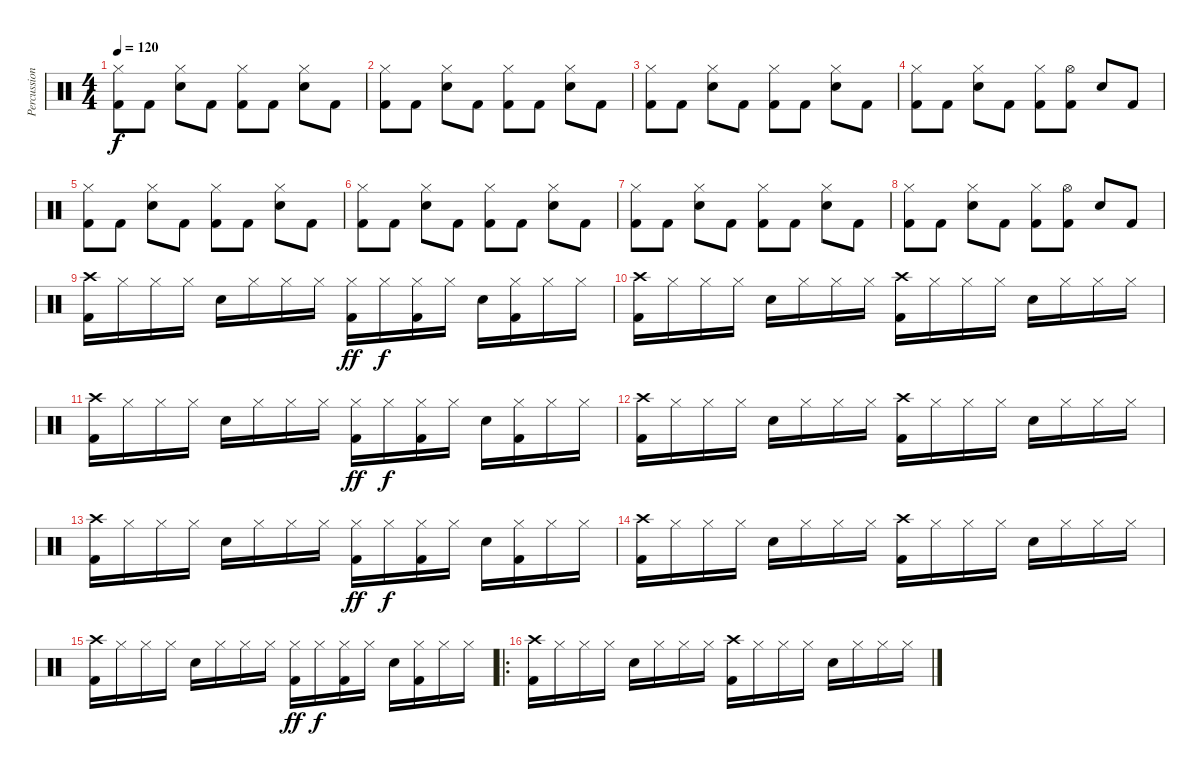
\track ("Percussions" "Percussion") {instrument percussion}
\staff {score}
\articulation defaults
\ts (4 4)
\tempo 120
\clef neutral
\ks c
("Hi-Hat (closed)" "Kick (hit) 2").8{dy f} "Kick (hit) 2".8 ("Hi-Hat (closed)" "Electric Snare (hit)").8 "Kick (hit) 2".8 ("Hi-Hat (closed)" "Kick (hit) 2").8 "Kick (hit) 2".8 ("Hi-Hat (closed)" "Electric Snare (hit)").8 "Kick (hit) 2".8 |
("Hi-Hat (closed)" "Kick (hit) 2").8 "Kick (hit) 2".8 ("Hi-Hat (closed)" "Electric Snare (hit)").8 "Kick (hit) 2".8 ("Hi-Hat (closed)" "Kick (hit) 2").8 "Kick (hit) 2".8 ("Hi-Hat (closed)" "Electric Snare (hit)").8 "Kick (hit) 2".8 |
("Hi-Hat (closed)" "Kick (hit) 2").8 "Kick (hit) 2".8 ("Hi-Hat (closed)" "Electric Snare (hit)").8 "Kick (hit) 2".8 ("Hi-Hat (closed)" "Kick (hit) 2").8 "Kick (hit) 2".8 ("Hi-Hat (closed)" "Electric Snare (hit)").8 "Kick (hit) 2".8 |
("Hi-Hat (closed)" "Kick (hit) 2").8 "Kick (hit) 2".8 ("Hi-Hat (closed)" "Electric Snare (hit)").8 "Kick (hit) 2".8 ("Hi-Hat (closed)" "Kick (hit) 2").8 ("Hi-Hat (open)" "Kick (hit) 2").8 "Electric Snare (hit)".8 "Kick (hit) 2".8 |
("Hi-Hat (closed)" "Kick (hit) 2").8 "Kick (hit) 2".8 ("Hi-Hat (closed)" "Electric Snare (hit)").8 "Kick (hit) 2".8 ("Hi-Hat (closed)" "Kick (hit) 2").8 "Kick (hit) 2".8 ("Hi-Hat (closed)" "Electric Snare (hit)").8 "Kick (hit) 2".8 |
("Hi-Hat (closed)" "Kick (hit) 2").8 "Kick (hit) 2".8 ("Hi-Hat (closed)" "Electric Snare (hit)").8 "Kick (hit) 2".8 ("Hi-Hat (closed)" "Kick (hit) 2").8 "Kick (hit) 2".8 ("Hi-Hat (closed)" "Electric Snare (hit)").8 "Kick (hit) 2".8 |
("Hi-Hat (closed)" "Kick (hit) 2").8 "Kick (hit) 2".8 ("Hi-Hat (closed)" "Electric Snare (hit)").8 "Kick (hit) 2".8 ("Hi-Hat (closed)" "Kick (hit) 2").8 "Kick (hit) 2".8 ("Hi-Hat (closed)" "Electric Snare (hit)").8 "Kick (hit) 2".8 |
("Hi-Hat (closed)" "Kick (hit) 2").8 "Kick (hit) 2".8 ("Hi-Hat (closed)" "Electric Snare (hit)").8 "Kick (hit) 2".8 ("Hi-Hat (closed)" "Kick (hit) 2").8 ("Hi-Hat (open)" "Kick (hit) 2").8 "Electric Snare (hit)".8 "Kick (hit) 2".8 |
("Crash high (hit)" "Kick (hit) 2").16 "Hi-Hat (closed)".16 "Hi-Hat (closed)".16 "Hi-Hat (closed)".16 "Snare (hit) 2".16 "Hi-Hat (closed)".16 "Hi-Hat (closed)".16 "Hi-Hat (closed)".16 ("Hi-Hat (closed)" "Kick (hit) 2").16{dy ff} "Hi-Hat (closed)".16{dy f} ("Hi-Hat (closed)" "Kick (hit) 2").16 "Hi-Hat (closed)".16 "Snare (hit) 2".16 ("Hi-Hat (closed)" "Kick (hit) 2").16 "Hi-Hat (closed)".16 "Hi-Hat (closed)".16 |
("Crash high (hit)" "Kick (hit) 2").16 "Hi-Hat (closed)".16 "Hi-Hat (closed)".16 "Hi-Hat (closed)".16 "Snare (hit) 2".16 "Hi-Hat (closed)".16 "Hi-Hat (closed)".16 "Hi-Hat (closed)".16 ("Crash high (hit)" "Kick (hit) 2").16 "Hi-Hat (closed)".16 "Hi-Hat (closed)".16 "Hi-Hat (closed)".16 "Snare (hit) 2".16 "Hi-Hat (closed)".16 "Hi-Hat (closed)".16 "Hi-Hat (closed)".16 |
("Crash high (hit)" "Kick (hit) 2").16 "Hi-Hat (closed)".16 "Hi-Hat (closed)".16 "Hi-Hat (closed)".16 "Snare (hit) 2".16 "Hi-Hat (closed)".16 "Hi-Hat (closed)".16 "Hi-Hat (closed)".16 ("Hi-Hat (closed)" "Kick (hit) 2").16{dy ff} "Hi-Hat (closed)".16{dy f} ("Hi-Hat (closed)" "Kick (hit) 2").16 "Hi-Hat (closed)".16 "Snare (hit) 2".16 ("Hi-Hat (closed)" "Kick (hit) 2").16 "Hi-Hat (closed)".16 "Hi-Hat (closed)".16 |
("Crash high (hit)" "Kick (hit) 2").16 "Hi-Hat (closed)".16 "Hi-Hat (closed)".16 "Hi-Hat (closed)".16 "Snare (hit) 2".16 "Hi-Hat (closed)".16 "Hi-Hat (closed)".16 "Hi-Hat (closed)".16 ("Crash high (hit)" "Kick (hit) 2").16 "Hi-Hat (closed)".16 "Hi-Hat (closed)".16 "Hi-Hat (closed)".16 "Snare (hit) 2".16 "Hi-Hat (closed)".16 "Hi-Hat (closed)".16 "Hi-Hat (closed)".16 |
("Crash high (hit)" "Kick (hit) 2").16 "Hi-Hat (closed)".16 "Hi-Hat (closed)".16 "Hi-Hat (closed)".16 "Snare (hit) 2".16 "Hi-Hat (closed)".16 "Hi-Hat (closed)".16 "Hi-Hat (closed)".16 ("Hi-Hat (closed)" "Kick (hit) 2").16{dy ff} "Hi-Hat (closed)".16{dy f} ("Hi-Hat (closed)" "Kick (hit) 2").16 "Hi-Hat (closed)".16 "Snare (hit) 2".16 ("Hi-Hat (closed)" "Kick (hit) 2").16 "Hi-Hat (closed)".16 "Hi-Hat (closed)".16 |
("Crash high (hit)" "Kick (hit) 2").16 "Hi-Hat (closed)".16 "Hi-Hat (closed)".16 "Hi-Hat (closed)".16 "Snare (hit) 2".16 "Hi-Hat (closed)".16 "Hi-Hat (closed)".16 "Hi-Hat (closed)".16 ("Crash high (hit)" "Kick (hit) 2").16 "Hi-Hat (closed)".16 "Hi-Hat (closed)".16 "Hi-Hat (closed)".16 "Snare (hit) 2".16 "Hi-Hat (closed)".16 "Hi-Hat (closed)".16 "Hi-Hat (closed)".16 |
("Crash high (hit)" "Kick (hit) 2").16 "Hi-Hat (closed)".16 "Hi-Hat (closed)".16 "Hi-Hat (closed)".16 "Snare (hit) 2".16 "Hi-Hat (closed)".16 "Hi-Hat (closed)".16 "Hi-Hat (closed)".16 ("Hi-Hat (closed)" "Kick (hit) 2").16{dy ff} "Hi-Hat (closed)".16{dy f} ("Hi-Hat (closed)" "Kick (hit) 2").16 "Hi-Hat (closed)".16 "Snare (hit) 2".16 ("Hi-Hat (closed)" "Kick (hit) 2").16 "Hi-Hat (closed)".16 "Hi-Hat (closed)".16 |
\ro
("Crash high (hit)" "Kick (hit) 2").16 "Hi-Hat (closed)".16 "Hi-Hat (closed)".16 "Hi-Hat (closed)".16 "Snare (hit) 2".16 "Hi-Hat (closed)".16 "Hi-Hat (closed)".16 "Hi-Hat (closed)".16 ("Crash high (hit)" "Kick (hit) 2").16 "Hi-Hat (closed)".16 "Hi-Hat (closed)".16 "Hi-Hat (closed)".16 "Snare (hit) 2".16 "Hi-Hat (closed)".16 "Hi-Hat (closed)".16 "Hi-Hat (closed)".16
